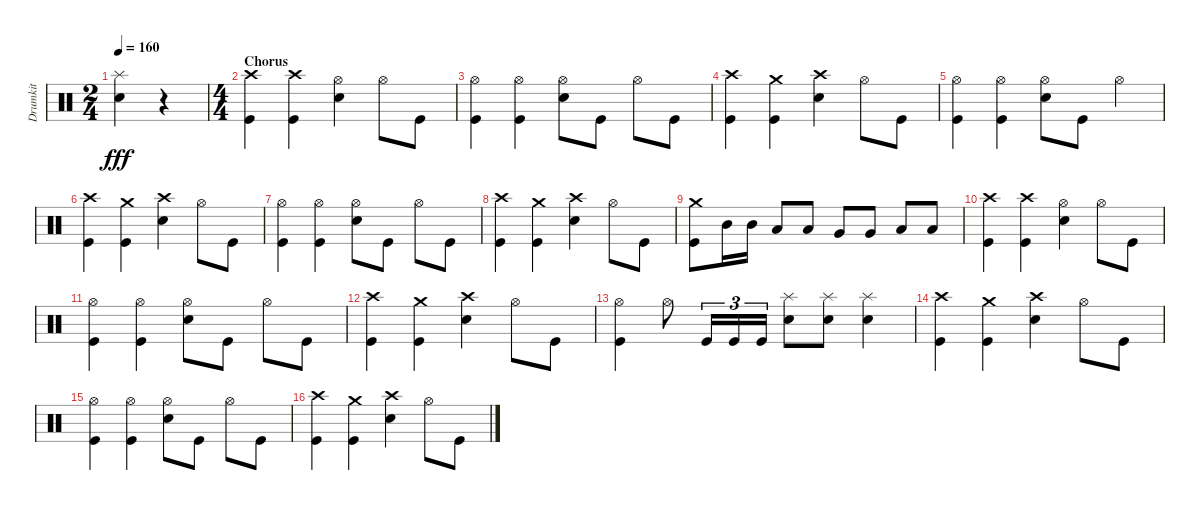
\track ("Drumkit" "Drumkit") {instrument percussion}
\staff {score}
\articulation defaults
\ts (2 4)
\tempo 160
\clef neutral
\ks c
("Snare (hit) 2" "Splash (hit)").4{dy fff} r.4 |
\ts (4 4)
\section ("" "Chorus")
("Kick (hit)" "Crash high (hit)").4 ("Kick (hit)" "Crash high (hit)").4 ("Hi-Hat (open)" "Snare (hit) 2").4 "Hi-Hat (open)".8 "Kick (hit)".8 |
("Kick (hit)" "Hi-Hat (open)").4 ("Hi-Hat (open)" "Kick (hit)").4 ("Hi-Hat (open)" "Snare (hit) 2").8 "Kick (hit)".8 "Hi-Hat (open)".8 "Kick (hit)".8 |
("Kick (hit)" "Crash high (hit)").4 ("Kick (hit)" "Crash medium (hit)").4 ("Snare (hit) 2" "Crash high (hit)").4 "Hi-Hat (open)".8 "Kick (hit)".8 |
("Kick (hit)" "Hi-Hat (open)").4 ("Hi-Hat (open)" "Kick (hit)").4 ("Hi-Hat (open)" "Snare (hit) 2").8 "Kick (hit)".8 "Hi-Hat (open)".4 |
("Kick (hit)" "Crash high (hit)").4 ("Kick (hit)" "Crash medium (hit)").4 ("Snare (hit) 2" "Crash high (hit)").4 "Hi-Hat (open)".8 "Kick (hit)".8 |
("Kick (hit)" "Hi-Hat (open)").4 ("Hi-Hat (open)" "Kick (hit)").4 ("Hi-Hat (open)" "Snare (hit) 2").8 "Kick (hit)".8 "Hi-Hat (open)".8 "Kick (hit)".8 |
("Kick (hit)" "Crash high (hit)").4 ("Kick (hit)" "Crash medium (hit)").4 ("Snare (hit) 2" "Crash high (hit)").4 "Hi-Hat (open)".8 "Kick (hit)".8 |
("Kick (hit)" "Crash medium (hit)").8 "Mid Tom (hit)".16 "Mid Tom (hit)".16 "Low Tom (hit)".8 "Low Tom (hit)".8 "Very Low Tom (hit)".8 "Very Low Tom (hit)".8 "Low Floor Tom (hit)".8 "Low Floor Tom (hit)".8 |
("Kick (hit)" "Crash high (hit)").4 ("Kick (hit)" "Crash high (hit)").4 ("Hi-Hat (open)" "Snare (hit) 2").4 "Hi-Hat (open)".8 "Kick (hit)".8 |
("Kick (hit)" "Hi-Hat (open)").4 ("Hi-Hat (open)" "Kick (hit)").4 ("Hi-Hat (open)" "Snare (hit) 2").8 "Kick (hit)".8 "Hi-Hat (open)".8 "Kick (hit)".8 |
("Kick (hit)" "Crash high (hit)").4 ("Kick (hit)" "Crash medium (hit)").4 ("Snare (hit) 2" "Crash high (hit)").4 "Hi-Hat (open)".8 "Kick (hit)".8 |
("Kick (hit)" "Hi-Hat (open)").4 "Hi-Hat (open)".8 "Kick (hit)".16{tu (3 2)} "Kick (hit)".16{tu (3 2)} "Kick (hit)".16{tu (3 2)} ("Snare (hit) 2" "Splash (hit)").8 ("Snare (hit) 2" "Splash (hit)").8 ("Snare (hit) 2" "Splash (hit)").4 |
("Kick (hit)" "Crash high (hit)").4 ("Kick (hit)" "Crash medium (hit)").4 ("Snare (hit) 2" "Crash high (hit)").4 "Hi-Hat (open)".8 "Kick (hit)".8 |
("Kick (hit)" "Hi-Hat (open)").4 ("Hi-Hat (open)" "Kick (hit)").4 ("Hi-Hat (open)" "Snare (hit) 2").8 "Kick (hit)".8 "Hi-Hat (open)".8 "Kick (hit)".8 |
("Kick (hit)" "Crash high (hit)").4 ("Kick (hit)" "Crash medium (hit)").4 ("Snare (hit) 2" "Crash high (hit)").4 "Hi-Hat (open)".8 "Kick (hit)".8
